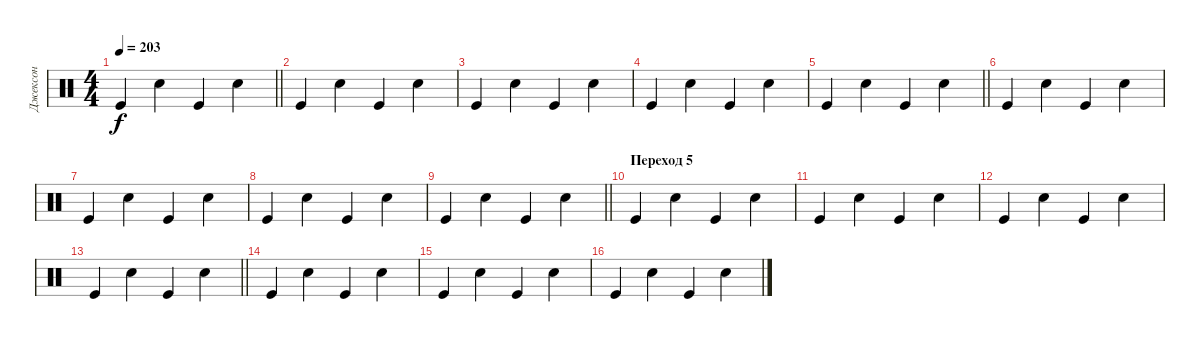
\track ("Джексон" "Джексон") {instrument percussion}
\staff {score}
\articulation defaults
\ts (4 4)
\tempo 203
\clef neutral
\barLineRight lightlight
\ks c "Kick (hit)".4{dy f} "Snare (hit) 2".4 "Kick (hit)".4 "Snare (hit) 2".4
|
"Kick (hit)".4 "Snare (hit) 2".4 "Kick (hit)".4 "Snare (hit) 2".4 |
"Kick (hit)".4 "Snare (hit) 2".4 "Kick (hit)".4 "Snare (hit) 2".4 |
"Kick (hit)".4 "Snare (hit) 2".4 "Kick (hit)".4 "Snare (hit) 2".4 |
\barLineRight lightlight "Kick (hit)".4 "Snare (hit) 2".4 "Kick (hit)".4 "Snare (hit) 2".4
|
"Kick (hit)".4 "Snare (hit) 2".4 "Kick (hit)".4 "Snare (hit) 2".4 |
"Kick (hit)".4 "Snare (hit) 2".4 "Kick (hit)".4 "Snare (hit) 2".4 |
"Kick (hit)".4 "Snare (hit) 2".4 "Kick (hit)".4 "Snare (hit) 2".4 |
\barLineRight lightlight "Kick (hit)".4 "Snare (hit) 2".4 "Kick (hit)".4 "Snare (hit) 2".4
|
\section ("" "Переход 5")
"Kick (hit)".4 "Snare (hit) 2".4 "Kick (hit)".4 "Snare (hit) 2".4 |
"Kick (hit)".4 "Snare (hit) 2".4 "Kick (hit)".4 "Snare (hit) 2".4 |
"Kick (hit)".4 "Snare (hit) 2".4 "Kick (hit)".4 "Snare (hit) 2".4 |
\barLineRight lightlight "Kick (hit)".4 "Snare (hit) 2".4 "Kick (hit)".4 "Snare (hit) 2".4
|
"Kick (hit)".4 "Snare (hit) 2".4 "Kick (hit)".4 "Snare (hit) 2".4 |
"Kick (hit)".4 "Snare (hit) 2".4 "Kick (hit)".4 "Snare (hit) 2".4 |
"Kick (hit)".4 "Snare (hit) 2".4 "Kick (hit)".4 "Snare (hit) 2".4
